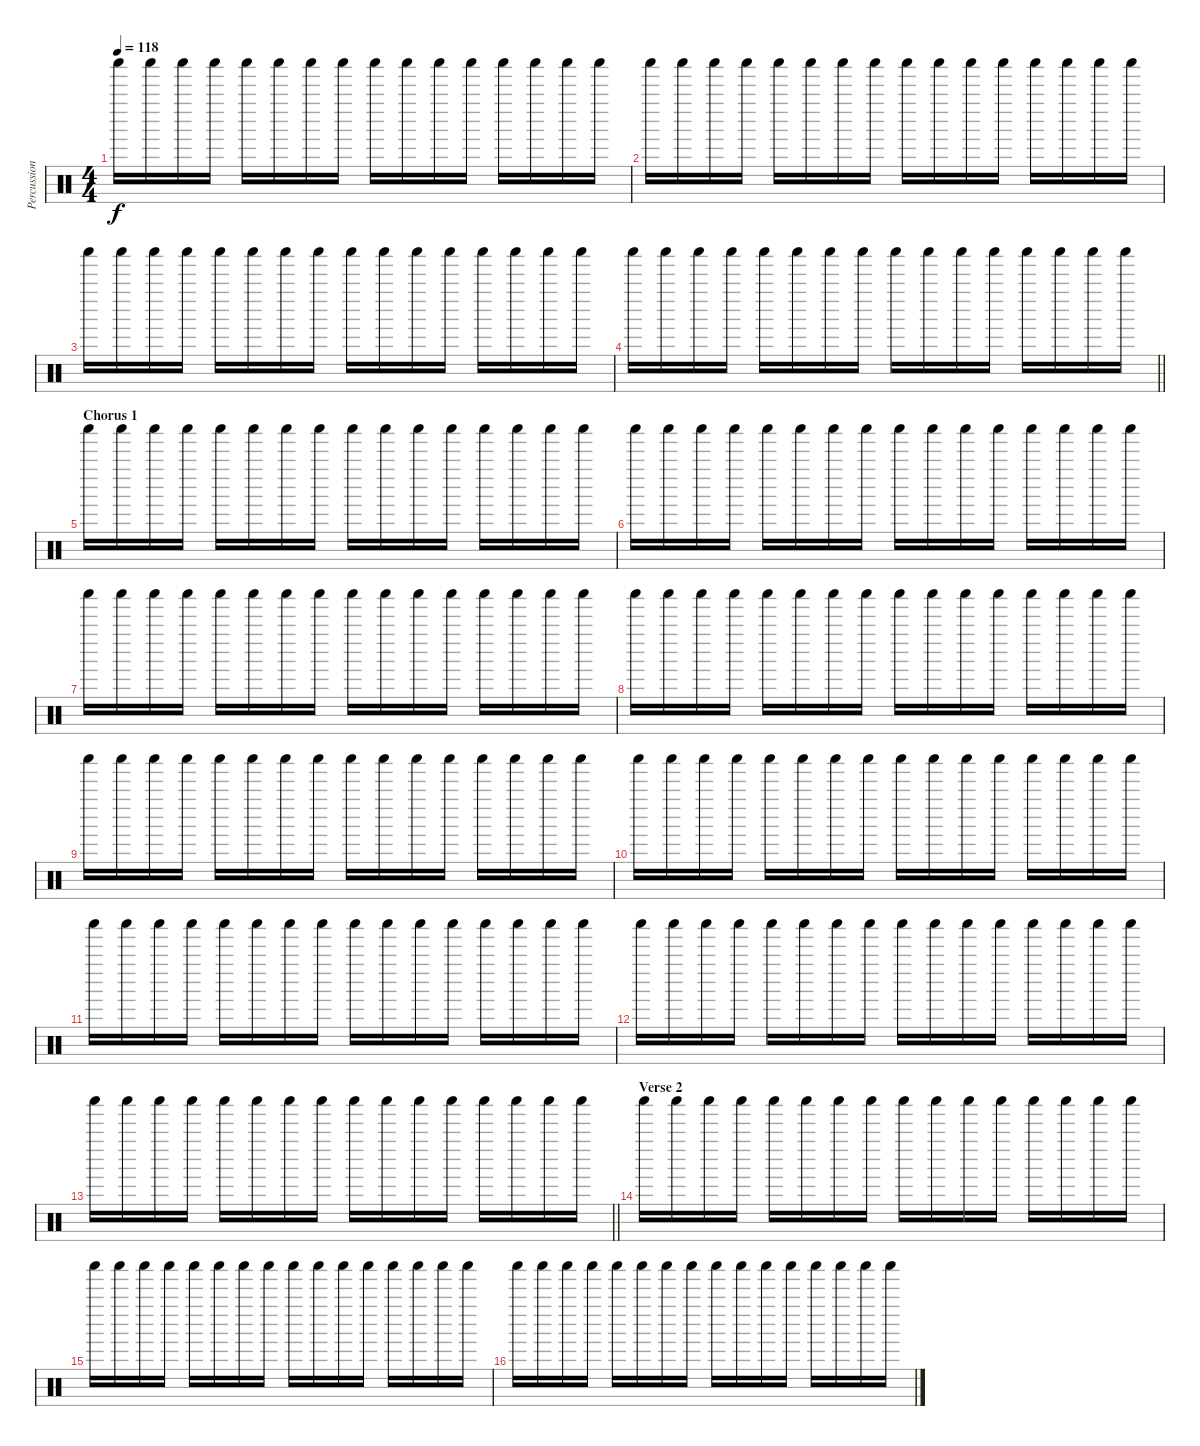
\track ("Percussion" "Percussion") {instrument percussion}
\staff {score}
\articulation defaults
\ts (4 4)
\tempo 118
\clef neutral
\ks c "Shaker (hit)".16{dy f} "Shaker (hit)".16 "Shaker (hit)".16 "Shaker (hit)".16 "Shaker (hit)".16 "Shaker (hit)".16 "Shaker (hit)".16 "Shaker (hit)".16 "Shaker (hit)".16 "Shaker (hit)".16 "Shaker (hit)".16 "Shaker (hit)".16 "Shaker (hit)".16 "Shaker (hit)".16 "Shaker (hit)".16 "Shaker (hit)".16
|
"Shaker (hit)".16 "Shaker (hit)".16 "Shaker (hit)".16 "Shaker (hit)".16 "Shaker (hit)".16 "Shaker (hit)".16 "Shaker (hit)".16 "Shaker (hit)".16 "Shaker (hit)".16 "Shaker (hit)".16 "Shaker (hit)".16 "Shaker (hit)".16 "Shaker (hit)".16 "Shaker (hit)".16 "Shaker (hit)".16 "Shaker (hit)".16 |
"Shaker (hit)".16 "Shaker (hit)".16 "Shaker (hit)".16 "Shaker (hit)".16 "Shaker (hit)".16 "Shaker (hit)".16 "Shaker (hit)".16 "Shaker (hit)".16 "Shaker (hit)".16 "Shaker (hit)".16 "Shaker (hit)".16 "Shaker (hit)".16 "Shaker (hit)".16 "Shaker (hit)".16 "Shaker (hit)".16 "Shaker (hit)".16 |
\barLineRight lightlight "Shaker (hit)".16 "Shaker (hit)".16 "Shaker (hit)".16 "Shaker (hit)".16 "Shaker (hit)".16 "Shaker (hit)".16 "Shaker (hit)".16 "Shaker (hit)".16 "Shaker (hit)".16 "Shaker (hit)".16 "Shaker (hit)".16 "Shaker (hit)".16 "Shaker (hit)".16 "Shaker (hit)".16 "Shaker (hit)".16 "Shaker (hit)".16
|
\section ("" "Chorus 1")
"Shaker (hit)".16 "Shaker (hit)".16 "Shaker (hit)".16 "Shaker (hit)".16 "Shaker (hit)".16 "Shaker (hit)".16 "Shaker (hit)".16 "Shaker (hit)".16 "Shaker (hit)".16 "Shaker (hit)".16 "Shaker (hit)".16 "Shaker (hit)".16 "Shaker (hit)".16 "Shaker (hit)".16 "Shaker (hit)".16 "Shaker (hit)".16 |
"Shaker (hit)".16 "Shaker (hit)".16 "Shaker (hit)".16 "Shaker (hit)".16 "Shaker (hit)".16 "Shaker (hit)".16 "Shaker (hit)".16 "Shaker (hit)".16 "Shaker (hit)".16 "Shaker (hit)".16 "Shaker (hit)".16 "Shaker (hit)".16 "Shaker (hit)".16 "Shaker (hit)".16 "Shaker (hit)".16 "Shaker (hit)".16 |
"Shaker (hit)".16 "Shaker (hit)".16 "Shaker (hit)".16 "Shaker (hit)".16 "Shaker (hit)".16 "Shaker (hit)".16 "Shaker (hit)".16 "Shaker (hit)".16 "Shaker (hit)".16 "Shaker (hit)".16 "Shaker (hit)".16 "Shaker (hit)".16 "Shaker (hit)".16 "Shaker (hit)".16 "Shaker (hit)".16 "Shaker (hit)".16 |
"Shaker (hit)".16 "Shaker (hit)".16 "Shaker (hit)".16 "Shaker (hit)".16 "Shaker (hit)".16 "Shaker (hit)".16 "Shaker (hit)".16 "Shaker (hit)".16 "Shaker (hit)".16 "Shaker (hit)".16 "Shaker (hit)".16 "Shaker (hit)".16 "Shaker (hit)".16 "Shaker (hit)".16 "Shaker (hit)".16 "Shaker (hit)".16 |
"Shaker (hit)".16 "Shaker (hit)".16 "Shaker (hit)".16 "Shaker (hit)".16 "Shaker (hit)".16 "Shaker (hit)".16 "Shaker (hit)".16 "Shaker (hit)".16 "Shaker (hit)".16 "Shaker (hit)".16 "Shaker (hit)".16 "Shaker (hit)".16 "Shaker (hit)".16 "Shaker (hit)".16 "Shaker (hit)".16 "Shaker (hit)".16 |
"Shaker (hit)".16 "Shaker (hit)".16 "Shaker (hit)".16 "Shaker (hit)".16 "Shaker (hit)".16 "Shaker (hit)".16 "Shaker (hit)".16 "Shaker (hit)".16 "Shaker (hit)".16 "Shaker (hit)".16 "Shaker (hit)".16 "Shaker (hit)".16 "Shaker (hit)".16 "Shaker (hit)".16 "Shaker (hit)".16 "Shaker (hit)".16 |
"Shaker (hit)".16 "Shaker (hit)".16 "Shaker (hit)".16 "Shaker (hit)".16 "Shaker (hit)".16 "Shaker (hit)".16 "Shaker (hit)".16 "Shaker (hit)".16 "Shaker (hit)".16 "Shaker (hit)".16 "Shaker (hit)".16 "Shaker (hit)".16 "Shaker (hit)".16 "Shaker (hit)".16 "Shaker (hit)".16 "Shaker (hit)".16 |
"Shaker (hit)".16 "Shaker (hit)".16 "Shaker (hit)".16 "Shaker (hit)".16 "Shaker (hit)".16 "Shaker (hit)".16 "Shaker (hit)".16 "Shaker (hit)".16 "Shaker (hit)".16 "Shaker (hit)".16 "Shaker (hit)".16 "Shaker (hit)".16 "Shaker (hit)".16 "Shaker (hit)".16 "Shaker (hit)".16 "Shaker (hit)".16 |
\barLineRight lightlight "Shaker (hit)".16 "Shaker (hit)".16 "Shaker (hit)".16 "Shaker (hit)".16 "Shaker (hit)".16 "Shaker (hit)".16 "Shaker (hit)".16 "Shaker (hit)".16 "Shaker (hit)".16 "Shaker (hit)".16 "Shaker (hit)".16 "Shaker (hit)".16 "Shaker (hit)".16 "Shaker (hit)".16 "Shaker (hit)".16 "Shaker (hit)".16
|
\section ("" "Verse 2")
"Shaker (hit)".16 "Shaker (hit)".16 "Shaker (hit)".16 "Shaker (hit)".16 "Shaker (hit)".16 "Shaker (hit)".16 "Shaker (hit)".16 "Shaker (hit)".16 "Shaker (hit)".16 "Shaker (hit)".16 "Shaker (hit)".16 "Shaker (hit)".16 "Shaker (hit)".16 "Shaker (hit)".16 "Shaker (hit)".16 "Shaker (hit)".16 |
"Shaker (hit)".16 "Shaker (hit)".16 "Shaker (hit)".16 "Shaker (hit)".16 "Shaker (hit)".16 "Shaker (hit)".16 "Shaker (hit)".16 "Shaker (hit)".16 "Shaker (hit)".16 "Shaker (hit)".16 "Shaker (hit)".16 "Shaker (hit)".16 "Shaker (hit)".16 "Shaker (hit)".16 "Shaker (hit)".16 "Shaker (hit)".16 |
"Shaker (hit)".16 "Shaker (hit)".16 "Shaker (hit)".16 "Shaker (hit)".16 "Shaker (hit)".16 "Shaker (hit)".16 "Shaker (hit)".16 "Shaker (hit)".16 "Shaker (hit)".16 "Shaker (hit)".16 "Shaker (hit)".16 "Shaker (hit)".16 "Shaker (hit)".16 "Shaker (hit)".16 "Shaker (hit)".16 "Shaker (hit)".16
